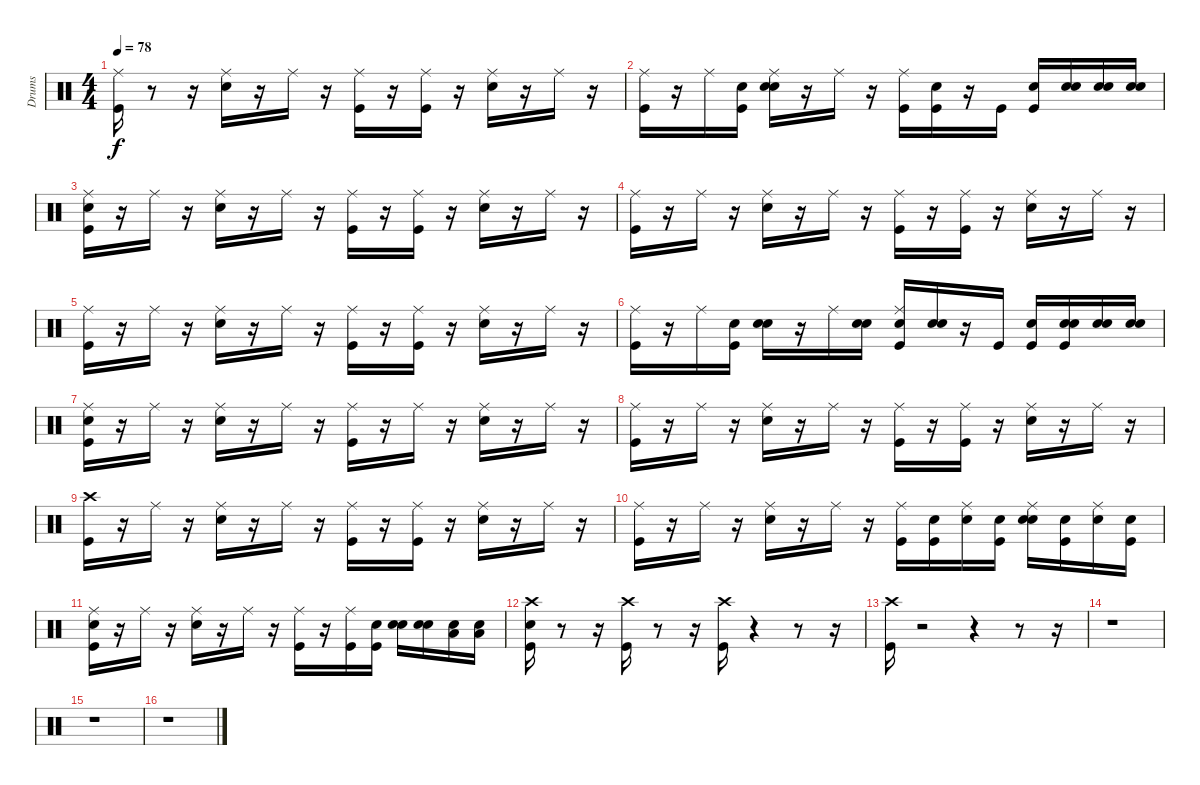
\track ("Drums" "Drums") {instrument percussion}
\staff {score}
\articulation defaults
\ts (4 4)
\tempo 78
\clef neutral
\ks c
("Kick (hit)" "Ride (middle)").16{dy f} r.8 r.16 ("Snare (hit) 2" "Ride (middle)").16 r.16 "Ride (middle)".16 r.16 ("Kick (hit)" "Ride (middle)").16 r.16 ("Kick (hit)" "Ride (middle)").16 r.16 ("Snare (hit) 2" "Ride (middle)").16 r.16 "Ride (middle)".16 r.16 |
("Kick (hit)" "Ride (middle)").16 r.16 "Ride (middle)".16 ("Snare (hit)" "Kick (hit)").16 ("Snare (hit)" "Snare (hit) 2" "Ride (middle)").16 r.16 "Ride (middle)".16 r.16 ("Kick (hit)" "Ride (middle)").16 ("Snare (hit)" "Kick (hit)").16 r.16 "Kick (hit)".16 ("Snare (hit)" "Kick (hit)").16 ("Snare (hit)" "Snare (hit) 2").16 ("Snare (hit)" "Snare (hit) 2").16 ("Snare (hit)" "Snare (hit) 2").16 |
("Snare (hit)" "Kick (hit)" "Ride (middle)").16 r.16 "Ride (middle)".16 r.16 ("Snare (hit) 2" "Ride (middle)").16 r.16 "Ride (middle)".16 r.16 ("Kick (hit)" "Ride (middle)").16 r.16 ("Kick (hit)" "Ride (middle)").16 r.16 ("Snare (hit) 2" "Ride (middle)").16 r.16 "Ride (middle)".16 r.16 |
("Kick (hit)" "Ride (middle)").16 r.16 "Ride (middle)".16 r.16 ("Snare (hit) 2" "Ride (middle)").16 r.16 "Ride (middle)".16 r.16 ("Kick (hit)" "Ride (middle)").16 r.16 ("Kick (hit)" "Ride (middle)").16 r.16 ("Snare (hit) 2" "Ride (middle)").16 r.16 "Ride (middle)".16 r.16 |
("Kick (hit)" "Ride (middle)").16 r.16 "Ride (middle)".16 r.16 ("Snare (hit) 2" "Ride (middle)").16 r.16 "Ride (middle)".16 r.16 ("Kick (hit)" "Ride (middle)").16 r.16 ("Kick (hit)" "Ride (middle)").16 r.16 ("Snare (hit) 2" "Ride (middle)").16 r.16 "Ride (middle)".16 r.16 |
("Kick (hit)" "Ride (middle)").16 r.16 "Ride (middle)".16 ("Snare (hit)" "Kick (hit)").16 ("Snare (hit)" "Snare (hit) 2").16 r.16 "Ride (middle)".16 ("Snare (hit)" "Snare (hit) 2").16 ("Snare (hit)" "Kick (hit)" "Ride (middle)").16 ("Snare (hit)" "Snare (hit) 2").16 r.16 "Kick (hit)".16 ("Snare (hit)" "Kick (hit)").16 ("Snare (hit)" "Kick (hit)" "Snare (hit) 2").16 ("Snare (hit)" "Snare (hit) 2").16 ("Snare (hit)" "Snare (hit) 2").16 |
("Snare (hit)" "Kick (hit)" "Ride (middle)").16 r.16 "Ride (middle)".16 r.16 ("Snare (hit) 2" "Ride (middle)").16 r.16 "Ride (middle)".16 r.16 ("Kick (hit)" "Ride (middle)").16 r.16 "Ride (middle)".16 r.16 ("Snare (hit) 2" "Ride (middle)").16 r.16 "Ride (middle)".16 r.16 |
("Kick (hit)" "Ride (middle)").16 r.16 "Ride (middle)".16 r.16 ("Snare (hit) 2" "Ride (middle)").16 r.16 "Ride (middle)".16 r.16 ("Kick (hit)" "Ride (middle)").16 r.16 ("Kick (hit)" "Ride (middle)").16 r.16 ("Snare (hit) 2" "Ride (middle)").16 r.16 "Ride (middle)".16 r.16 |
("Kick (hit)" "Crash high (hit)").16 r.16 "Ride (middle)".16 r.16 ("Snare (hit) 2" "Ride (middle)").16 r.16 "Ride (middle)".16 r.16 ("Kick (hit)" "Ride (middle)").16 r.16 ("Kick (hit)" "Ride (middle)").16 r.16 ("Snare (hit) 2" "Ride (middle)").16 r.16 "Ride (middle)".16 r.16 |
("Kick (hit)" "Ride (middle)").16 r.16 "Ride (middle)".16 r.16 ("Snare (hit) 2" "Ride (middle)").16 r.16 "Ride (middle)".16 r.16 ("Kick (hit)" "Ride (middle)").16 ("Snare (hit)" "Kick (hit)").16 ("Snare (hit)" "Ride (middle)").16 ("Snare (hit)" "Kick (hit)").16 ("Snare (hit)" "Snare (hit) 2" "Ride (middle)").16 ("Snare (hit)" "Kick (hit)").16 ("Snare (hit)" "Ride (middle)").16 ("Snare (hit)" "Kick (hit)").16 |
("Snare (hit)" "Kick (hit)" "Ride (middle)").16 r.16 "Ride (middle)".16 r.16 ("Snare (hit) 2" "Ride (middle)").16 r.16 "Ride (middle)".16 r.16 ("Kick (hit)" "Ride (middle)").16 r.16 ("Kick (hit)" "Ride (middle)").16 ("Snare (hit)" "Kick (hit)").16 ("Snare (hit)" "Snare (hit) 2").16 ("Snare (hit)" "Snare (hit) 2").16 ("Snare (hit)" "Low Tom (hit)").16 ("Snare (hit)" "Low Tom (hit)").16 |
("Snare (hit)" "Kick (hit)" "Crash high (hit)").16 r.8 r.16 ("Kick (hit)" "Crash high (hit)").16 r.8 r.16 ("Kick (hit)" "Crash high (hit)").16 r.4 r.8 r.16 |
("Kick (hit)" "Crash high (hit)").16 r.2 r.4 r.8 r.16 |
r.1 |
r.1 |
r.1
